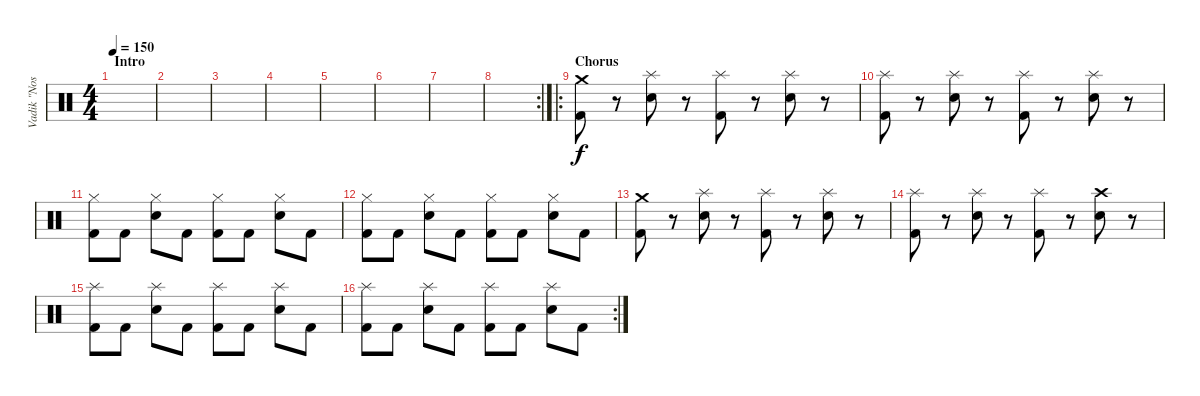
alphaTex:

\track ("Vadik \"Nos\"" "Vadik \"Nos") {instrument percussion}
\staff {score}
\articulation defaults
\ts (4 4)
\section ("" "Intro")
\tempo 150
\clef neutral
\ks c
|
|
|
|
|
|
|
\rc 2
|
\ro
\section ("" "Chorus")
("Kick (hit) 2" "Crash medium (hit)").8 r.8 ("Electric Snare (hit)" "Splash (hit)").8 r.8 ("Kick (hit) 2" "Splash (hit)").8 r.8 ("Electric Snare (hit)" "Splash (hit)").8 r.8 |
("Kick (hit) 2" "Splash (hit)").8 r.8 ("Electric Snare (hit)" "Splash (hit)").8 r.8 ("Kick (hit) 2" "Splash (hit)").8 r.8 ("Electric Snare (hit)" "Splash (hit)").8 r.8 |
("Kick (hit) 2" "Hi-Hat (closed)").8 "Kick (hit) 2".8 ("Electric Snare (hit)" "Hi-Hat (closed)").8 "Kick (hit) 2".8 ("Kick (hit) 2" "Hi-Hat (closed)").8 "Kick (hit) 2".8 ("Electric Snare (hit)" "Hi-Hat (closed)").8 "Kick (hit) 2".8 |
("Kick (hit) 2" "Hi-Hat (closed)").8 "Kick (hit) 2".8 ("Electric Snare (hit)" "Hi-Hat (closed)").8 "Kick (hit) 2".8 ("Kick (hit) 2" "Hi-Hat (closed)").8 "Kick (hit) 2".8 ("Electric Snare (hit)" "Hi-Hat (closed)").8 "Kick (hit) 2".8 |
("Kick (hit) 2" "Crash medium (hit)").8 r.8 ("Electric Snare (hit)" "Splash (hit)").8 r.8 ("Kick (hit) 2" "Splash (hit)").8 r.8 ("Electric Snare (hit)" "Splash (hit)").8 r.8 |
("Kick (hit) 2" "Splash (hit)").8 r.8 ("Electric Snare (hit)" "Splash (hit)").8 r.8 ("Kick (hit) 2" "Splash (hit)").8 r.8 ("Electric Snare (hit)" "Crash high (hit)").8 r.8 |
("Kick (hit) 2" "Splash (hit)").8 "Kick (hit) 2".8 ("Electric Snare (hit)" "Splash (hit)").8 "Kick (hit) 2".8 ("Kick (hit) 2" "Splash (hit)").8 "Kick (hit) 2".8 ("Electric Snare (hit)" "Splash (hit)").8 "Kick (hit) 2".8 |
\rc 2
("Kick (hit) 2" "Splash (hit)").8 "Kick (hit) 2".8 ("Electric Snare (hit)" "Splash (hit)").8 "Kick (hit) 2".8 ("Kick (hit) 2" "Splash (hit)").8 "Kick (hit) 2".8 ("Electric Snare (hit)" "Splash (hit)").8 "Kick (hit) 2".8
